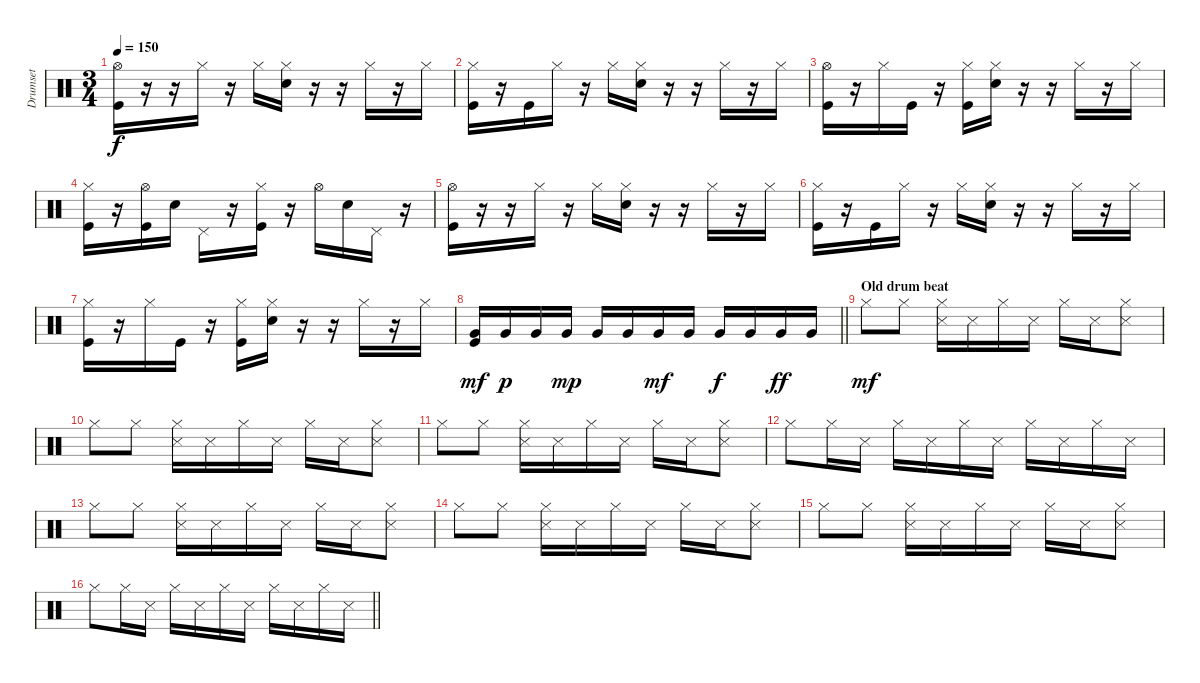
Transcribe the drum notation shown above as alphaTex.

\track ("Drumset" "Drumset") {instrument percussion}
\staff {score}
\articulation defaults
\ts (3 4)
\tempo 150
\clef neutral
\ks c
("Hi-Hat (open)" "Kick (hit)").16{dy f} r.16 r.16 "Hi-Hat (closed)".16 r.16 "Hi-Hat (closed)".16 ("Hi-Hat (closed)" "Snare (hit) 2").16 r.16 r.16 "Hi-Hat (closed)".16 r.16 "Hi-Hat (closed)".16 |
("Hi-Hat (closed)" "Kick (hit)").16 r.16 "Kick (hit)".16 "Hi-Hat (closed)".16 r.16 "Hi-Hat (closed)".16 ("Hi-Hat (closed)" "Snare (hit) 2").16 r.16 r.16 "Hi-Hat (closed)".16 r.16 "Hi-Hat (closed)".16 |
("Hi-Hat (open)" "Kick (hit)").16 r.16 "Hi-Hat (closed)".16 "Kick (hit)".16 r.16 ("Hi-Hat (closed)" "Kick (hit)").16 ("Hi-Hat (closed)" "Snare (hit) 2").16 r.16 r.16 "Hi-Hat (closed)".16 r.16 "Hi-Hat (closed)".16 |
("Hi-Hat (closed)" "Kick (hit)").16 r.16 ("Hi-Hat (open)" "Kick (hit)").16 "Snare (hit) 2".16 "Pedal Hi-Hat (hit)".16 r.16 ("Hi-Hat (closed)" "Kick (hit)").16 r.16 "Hi-Hat (open)".16 "Snare (hit) 2".16 "Pedal Hi-Hat (hit)".16 r.16 |
("Hi-Hat (open)" "Kick (hit)").16 r.16 r.16 "Hi-Hat (closed)".16 r.16 "Hi-Hat (closed)".16 ("Hi-Hat (closed)" "Snare (hit) 2").16 r.16 r.16 "Hi-Hat (closed)".16 r.16 "Hi-Hat (closed)".16 |
("Hi-Hat (closed)" "Kick (hit)").16 r.16 "Kick (hit)".16 "Hi-Hat (closed)".16 r.16 "Hi-Hat (closed)".16 ("Hi-Hat (closed)" "Snare (hit) 2").16 r.16 r.16 "Hi-Hat (closed)".16 r.16 "Hi-Hat (closed)".16 |
("Hi-Hat (closed)" "Kick (hit)").16 r.16 "Hi-Hat (closed)".16 "Kick (hit)".16 r.16 ("Hi-Hat (closed)" "Kick (hit)").16 ("Hi-Hat (closed)" "Snare (hit) 2").16 r.16 r.16 "Hi-Hat (closed)".16 r.16 "Hi-Hat (closed)".16 |
\barLineRight lightlight
("Very Low Tom (hit)" "Kick (hit)").16{dy mf} "Very Low Tom (hit)".16{dy p} "Very Low Tom (hit)".16 "Very Low Tom (hit)".16{dy mp} "Very Low Tom (hit)".16 "Very Low Tom (hit)".16 "Very Low Tom (hit)".16{dy mf} "Very Low Tom (hit)".16 "Very Low Tom (hit)".16{dy f} "Very Low Tom (hit)".16 "Very Low Tom (hit)".16{dy ff} "Very Low Tom (hit)".16 |
\section ("" "Old drum beat ")
"Hi-Hat (closed)".8{dy mf} "Hi-Hat (closed)".8 ("Hi-Hat (closed)" "Snare (side stick) 3").16 "Snare (side stick) 3".16 "Hi-Hat (closed)".16 "Snare (side stick) 3".16 "Hi-Hat (closed)".16 "Snare (side stick) 3".16 ("Hi-Hat (closed)" "Snare (side stick) 3").8 |
"Hi-Hat (closed)".8 "Hi-Hat (closed)".8 ("Hi-Hat (closed)" "Snare (side stick) 3").16 "Snare (side stick) 3".16 "Hi-Hat (closed)".16 "Snare (side stick) 3".16 "Hi-Hat (closed)".16 "Snare (side stick) 3".16 ("Hi-Hat (closed)" "Snare (side stick) 3").8 |
"Hi-Hat (closed)".8 "Hi-Hat (closed)".8 ("Hi-Hat (closed)" "Snare (side stick) 3").16 "Snare (side stick) 3".16 "Hi-Hat (closed)".16 "Snare (side stick) 3".16 "Hi-Hat (closed)".16 "Snare (side stick) 3".16 ("Hi-Hat (closed)" "Snare (side stick) 3").8 |
"Hi-Hat (closed)".8 "Hi-Hat (closed)".16 "Snare (side stick) 3".16 "Hi-Hat (closed)".16 "Snare (side stick) 3".16 "Hi-Hat (closed)".16 "Snare (side stick) 3".16 "Hi-Hat (closed)".16 "Snare (side stick) 3".16 "Hi-Hat (closed)".16 "Snare (side stick) 3".16 |
"Hi-Hat (closed)".8 "Hi-Hat (closed)".8 ("Hi-Hat (closed)" "Snare (side stick) 3").16 "Snare (side stick) 3".16 "Hi-Hat (closed)".16 "Snare (side stick) 3".16 "Hi-Hat (closed)".16 "Snare (side stick) 3".16 ("Hi-Hat (closed)" "Snare (side stick) 3").8 |
"Hi-Hat (closed)".8 "Hi-Hat (closed)".8 ("Hi-Hat (closed)" "Snare (side stick) 3").16 "Snare (side stick) 3".16 "Hi-Hat (closed)".16 "Snare (side stick) 3".16 "Hi-Hat (closed)".16 "Snare (side stick) 3".16 ("Hi-Hat (closed)" "Snare (side stick) 3").8 |
"Hi-Hat (closed)".8 "Hi-Hat (closed)".8 ("Hi-Hat (closed)" "Snare (side stick) 3").16 "Snare (side stick) 3".16 "Hi-Hat (closed)".16 "Snare (side stick) 3".16 "Hi-Hat (closed)".16 "Snare (side stick) 3".16 ("Hi-Hat (closed)" "Snare (side stick) 3").8 |
\barLineRight lightlight "Hi-Hat (closed)".8 "Hi-Hat (closed)".16 "Snare (side stick) 3".16 "Hi-Hat (closed)".16 "Snare (side stick) 3".16 "Hi-Hat (closed)".16 "Snare (side stick) 3".16 "Hi-Hat (closed)".16 "Snare (side stick) 3".16 "Hi-Hat (closed)".16 "Snare (side stick) 3".16
